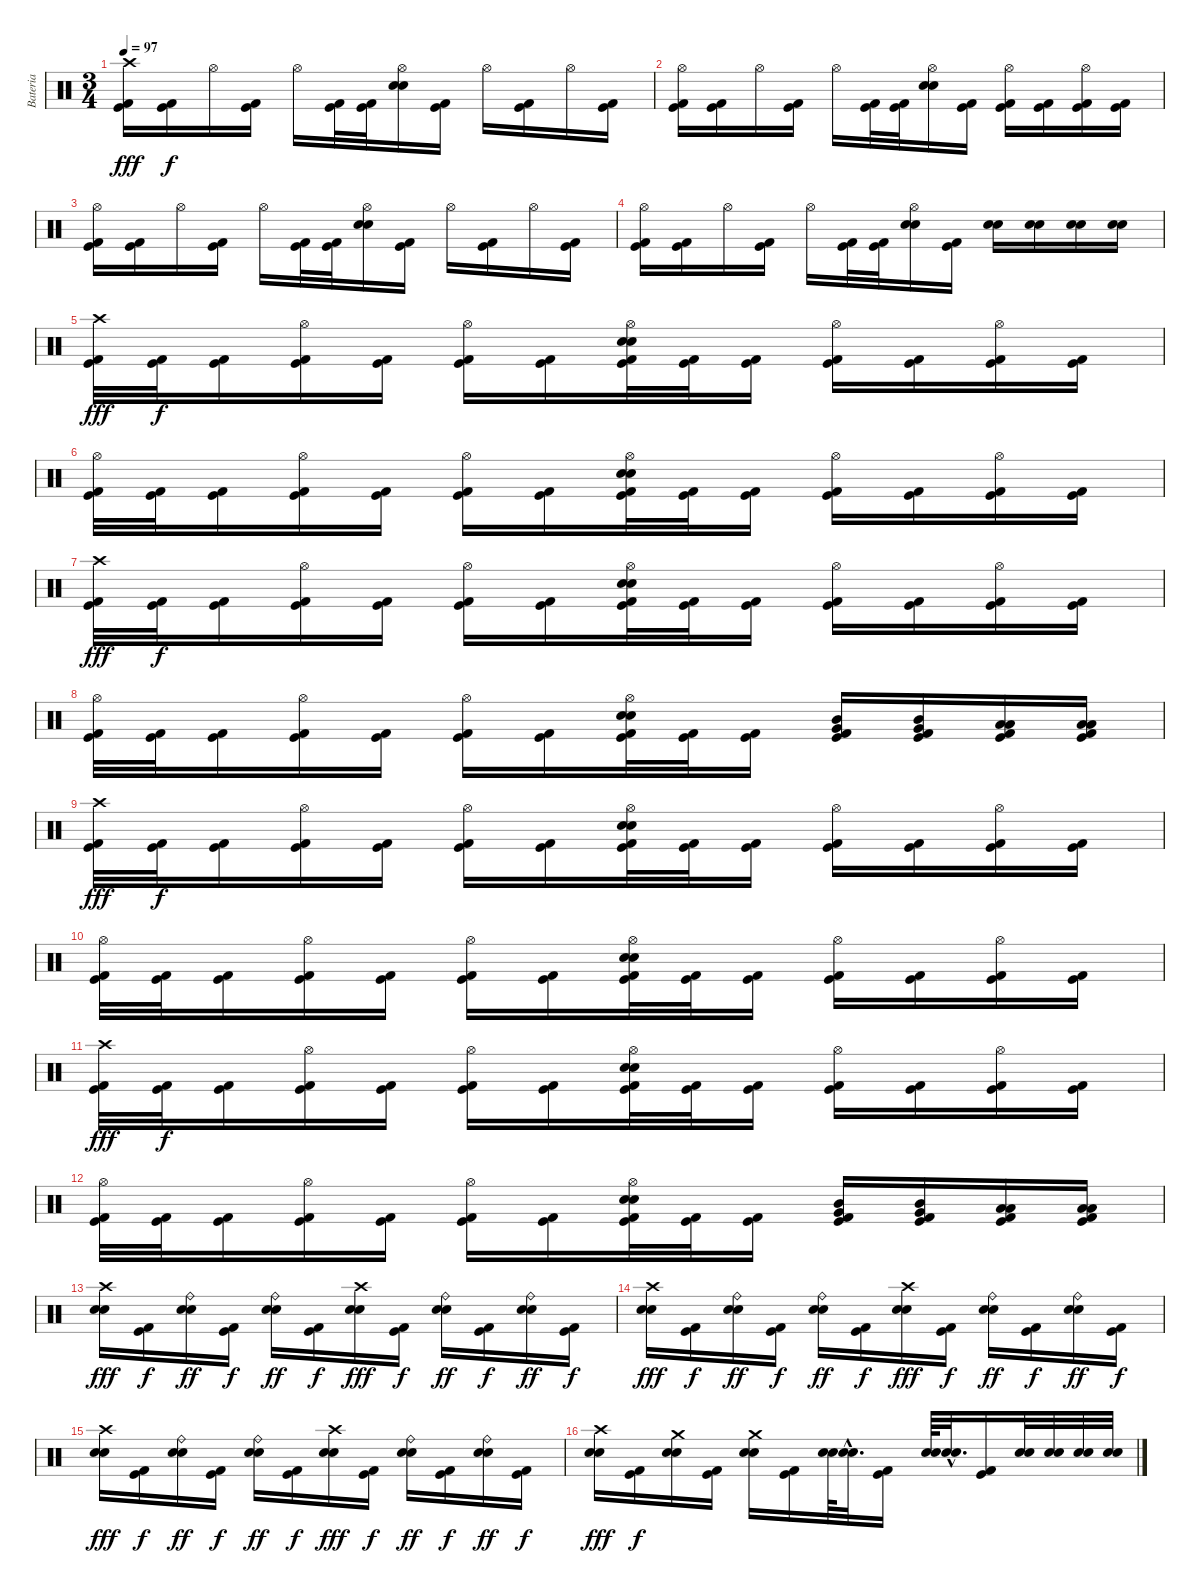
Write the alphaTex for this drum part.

\track ("Bateria" "Bateria") {instrument percussion}
\staff {score}
\articulation defaults
\ts (3 4)
\tempo 97
\clef neutral
\ks c
("Crash high (hit)" "Kick (hit) 2" "Kick (hit)").16{dy fff} ("Kick (hit) 2" "Kick (hit)").16{dy f} "Hi-Hat (open)".16 ("Kick (hit) 2" "Kick (hit)").16 "Hi-Hat (open)".16 ("Kick (hit) 2" "Kick (hit)").32 ("Kick (hit) 2" "Kick (hit)").32 ("Hi-Hat (open)" "Electric Snare (hit)" "Snare (hit) 2").16 ("Kick (hit) 2" "Kick (hit)").16 "Hi-Hat (open)".16 ("Kick (hit) 2" "Kick (hit)").16 "Hi-Hat (open)".16 ("Kick (hit) 2" "Kick (hit)").16 |
("Hi-Hat (open)" "Kick (hit) 2" "Kick (hit)").16 ("Kick (hit) 2" "Kick (hit)").16 "Hi-Hat (open)".16 ("Kick (hit) 2" "Kick (hit)").16 "Hi-Hat (open)".16 ("Kick (hit) 2" "Kick (hit)").32 ("Kick (hit) 2" "Kick (hit)").32 ("Hi-Hat (open)" "Electric Snare (hit)" "Snare (hit) 2").16 ("Kick (hit) 2" "Kick (hit)").16 ("Hi-Hat (open)" "Kick (hit) 2" "Kick (hit)").16 ("Kick (hit) 2" "Kick (hit)").16 ("Hi-Hat (open)" "Kick (hit) 2" "Kick (hit)").16 ("Kick (hit) 2" "Kick (hit)").16 |
("Hi-Hat (open)" "Kick (hit) 2" "Kick (hit)").16 ("Kick (hit) 2" "Kick (hit)").16 "Hi-Hat (open)".16 ("Kick (hit) 2" "Kick (hit)").16 "Hi-Hat (open)".16 ("Kick (hit) 2" "Kick (hit)").32 ("Kick (hit) 2" "Kick (hit)").32 ("Hi-Hat (open)" "Electric Snare (hit)" "Snare (hit) 2").16 ("Kick (hit) 2" "Kick (hit)").16 "Hi-Hat (open)".16 ("Kick (hit) 2" "Kick (hit)").16 "Hi-Hat (open)".16 ("Kick (hit) 2" "Kick (hit)").16 |
("Hi-Hat (open)" "Kick (hit) 2" "Kick (hit)").16 ("Kick (hit) 2" "Kick (hit)").16 "Hi-Hat (open)".16 ("Kick (hit) 2" "Kick (hit)").16 "Hi-Hat (open)".16 ("Kick (hit) 2" "Kick (hit)").32 ("Kick (hit) 2" "Kick (hit)").32 ("Hi-Hat (open)" "Electric Snare (hit)" "Snare (hit) 2").16 ("Kick (hit) 2" "Kick (hit)").16 ("Electric Snare (hit)" "Snare (hit) 2").16 ("Electric Snare (hit)" "Snare (hit) 2").16 ("Electric Snare (hit)" "Snare (hit) 2").16 ("Electric Snare (hit)" "Snare (hit) 2").16 |
("Crash high (hit)" "Kick (hit) 2" "Kick (hit)").32{dy fff} ("Kick (hit) 2" "Kick (hit)").32{dy f} ("Kick (hit) 2" "Kick (hit)").16 ("Hi-Hat (open)" "Kick (hit) 2" "Kick (hit)").16 ("Kick (hit) 2" "Kick (hit)").16 ("Hi-Hat (open)" "Kick (hit) 2" "Kick (hit)").16 ("Kick (hit) 2" "Kick (hit)").16 ("Hi-Hat (open)" "Electric Snare (hit)" "Snare (hit) 2" "Kick (hit) 2" "Kick (hit)").32 ("Kick (hit) 2" "Kick (hit)").32 ("Kick (hit) 2" "Kick (hit)").16 ("Hi-Hat (open)" "Kick (hit) 2" "Kick (hit)").16 ("Kick (hit) 2" "Kick (hit)").16 ("Hi-Hat (open)" "Kick (hit) 2" "Kick (hit)").16 ("Kick (hit) 2" "Kick (hit)").16 |
("Hi-Hat (open)" "Kick (hit) 2" "Kick (hit)").32 ("Kick (hit) 2" "Kick (hit)").32 ("Kick (hit) 2" "Kick (hit)").16 ("Hi-Hat (open)" "Kick (hit) 2" "Kick (hit)").16 ("Kick (hit) 2" "Kick (hit)").16 ("Hi-Hat (open)" "Kick (hit) 2" "Kick (hit)").16 ("Kick (hit) 2" "Kick (hit)").16 ("Hi-Hat (open)" "Electric Snare (hit)" "Snare (hit) 2" "Kick (hit) 2" "Kick (hit)").32 ("Kick (hit) 2" "Kick (hit)").32 ("Kick (hit) 2" "Kick (hit)").16 ("Hi-Hat (open)" "Kick (hit) 2" "Kick (hit)").16 ("Kick (hit) 2" "Kick (hit)").16 ("Hi-Hat (open)" "Kick (hit) 2" "Kick (hit)").16 ("Kick (hit) 2" "Kick (hit)").16 |
("Crash high (hit)" "Kick (hit) 2" "Kick (hit)").32{dy fff} ("Kick (hit) 2" "Kick (hit)").32{dy f} ("Kick (hit) 2" "Kick (hit)").16 ("Hi-Hat (open)" "Kick (hit) 2" "Kick (hit)").16 ("Kick (hit) 2" "Kick (hit)").16 ("Hi-Hat (open)" "Kick (hit) 2" "Kick (hit)").16 ("Kick (hit) 2" "Kick (hit)").16 ("Hi-Hat (open)" "Electric Snare (hit)" "Snare (hit) 2" "Kick (hit) 2" "Kick (hit)").32 ("Kick (hit) 2" "Kick (hit)").32 ("Kick (hit) 2" "Kick (hit)").16 ("Hi-Hat (open)" "Kick (hit) 2" "Kick (hit)").16 ("Kick (hit) 2" "Kick (hit)").16 ("Hi-Hat (open)" "Kick (hit) 2" "Kick (hit)").16 ("Kick (hit) 2" "Kick (hit)").16 |
("Hi-Hat (open)" "Kick (hit) 2" "Kick (hit)").32 ("Kick (hit) 2" "Kick (hit)").32 ("Kick (hit) 2" "Kick (hit)").16 ("Hi-Hat (open)" "Kick (hit) 2" "Kick (hit)").16 ("Kick (hit) 2" "Kick (hit)").16 ("Hi-Hat (open)" "Kick (hit) 2" "Kick (hit)").16 ("Kick (hit) 2" "Kick (hit)").16 ("Hi-Hat (open)" "Electric Snare (hit)" "Snare (hit) 2" "Kick (hit) 2" "Kick (hit)").32 ("Kick (hit) 2" "Kick (hit)").32 ("Kick (hit) 2" "Kick (hit)").16 ("Mid Tom (hit)" "Very Low Tom (hit)" "Kick (hit) 2" "Kick (hit)").16 ("Mid Tom (hit)" "Very Low Tom (hit)" "Kick (hit) 2" "Kick (hit)").16 ("Low Tom (hit)" "Low Floor Tom (hit)" "Kick (hit) 2" "Kick (hit)").16 ("Low Tom (hit)" "Low Floor Tom (hit)" "Kick (hit) 2" "Kick (hit)").16 |
("Crash high (hit)" "Kick (hit) 2" "Kick (hit)").32{dy fff} ("Kick (hit) 2" "Kick (hit)").32{dy f} ("Kick (hit) 2" "Kick (hit)").16 ("Hi-Hat (open)" "Kick (hit) 2" "Kick (hit)").16 ("Kick (hit) 2" "Kick (hit)").16 ("Hi-Hat (open)" "Kick (hit) 2" "Kick (hit)").16 ("Kick (hit) 2" "Kick (hit)").16 ("Hi-Hat (open)" "Electric Snare (hit)" "Snare (hit) 2" "Kick (hit) 2" "Kick (hit)").32 ("Kick (hit) 2" "Kick (hit)").32 ("Kick (hit) 2" "Kick (hit)").16 ("Hi-Hat (open)" "Kick (hit) 2" "Kick (hit)").16 ("Kick (hit) 2" "Kick (hit)").16 ("Hi-Hat (open)" "Kick (hit) 2" "Kick (hit)").16 ("Kick (hit) 2" "Kick (hit)").16 |
("Hi-Hat (open)" "Kick (hit) 2" "Kick (hit)").32 ("Kick (hit) 2" "Kick (hit)").32 ("Kick (hit) 2" "Kick (hit)").16 ("Hi-Hat (open)" "Kick (hit) 2" "Kick (hit)").16 ("Kick (hit) 2" "Kick (hit)").16 ("Hi-Hat (open)" "Kick (hit) 2" "Kick (hit)").16 ("Kick (hit) 2" "Kick (hit)").16 ("Hi-Hat (open)" "Electric Snare (hit)" "Snare (hit) 2" "Kick (hit) 2" "Kick (hit)").32 ("Kick (hit) 2" "Kick (hit)").32 ("Kick (hit) 2" "Kick (hit)").16 ("Hi-Hat (open)" "Kick (hit) 2" "Kick (hit)").16 ("Kick (hit) 2" "Kick (hit)").16 ("Hi-Hat (open)" "Kick (hit) 2" "Kick (hit)").16 ("Kick (hit) 2" "Kick (hit)").16 |
("Crash high (hit)" "Kick (hit) 2" "Kick (hit)").32{dy fff} ("Kick (hit) 2" "Kick (hit)").32{dy f} ("Kick (hit) 2" "Kick (hit)").16 ("Hi-Hat (open)" "Kick (hit) 2" "Kick (hit)").16 ("Kick (hit) 2" "Kick (hit)").16 ("Hi-Hat (open)" "Kick (hit) 2" "Kick (hit)").16 ("Kick (hit) 2" "Kick (hit)").16 ("Hi-Hat (open)" "Electric Snare (hit)" "Snare (hit) 2" "Kick (hit) 2" "Kick (hit)").32 ("Kick (hit) 2" "Kick (hit)").32 ("Kick (hit) 2" "Kick (hit)").16 ("Hi-Hat (open)" "Kick (hit) 2" "Kick (hit)").16 ("Kick (hit) 2" "Kick (hit)").16 ("Hi-Hat (open)" "Kick (hit) 2" "Kick (hit)").16 ("Kick (hit) 2" "Kick (hit)").16 |
("Hi-Hat (open)" "Kick (hit) 2" "Kick (hit)").32 ("Kick (hit) 2" "Kick (hit)").32 ("Kick (hit) 2" "Kick (hit)").16 ("Hi-Hat (open)" "Kick (hit) 2" "Kick (hit)").16 ("Kick (hit) 2" "Kick (hit)").16 ("Hi-Hat (open)" "Kick (hit) 2" "Kick (hit)").16 ("Kick (hit) 2" "Kick (hit)").16 ("Hi-Hat (open)" "Electric Snare (hit)" "Snare (hit) 2" "Kick (hit) 2" "Kick (hit)").32 ("Kick (hit) 2" "Kick (hit)").32 ("Kick (hit) 2" "Kick (hit)").16 ("Mid Tom (hit)" "Very Low Tom (hit)" "Kick (hit) 2" "Kick (hit)").16 ("Mid Tom (hit)" "Very Low Tom (hit)" "Kick (hit) 2" "Kick (hit)").16 ("Low Tom (hit)" "Low Floor Tom (hit)" "Kick (hit) 2" "Kick (hit)").16 ("Low Tom (hit)" "Low Floor Tom (hit)" "Kick (hit) 2" "Kick (hit)").16 |
("Crash high (hit)" "Electric Snare (hit)" "Snare (hit) 2").16{dy fff} ("Kick (hit) 2" "Kick (hit)").16{dy f} ("Ride (bell)" "Electric Snare (hit)" "Snare (hit) 2").16{dy ff} ("Kick (hit) 2" "Kick (hit)").16{dy f} ("Ride (bell)" "Electric Snare (hit)" "Snare (hit) 2").16{dy ff} ("Kick (hit) 2" "Kick (hit)").16{dy f} ("Crash high (hit)" "Electric Snare (hit)" "Snare (hit) 2").16{dy fff} ("Kick (hit) 2" "Kick (hit)").16{dy f} ("Ride (bell)" "Electric Snare (hit)" "Snare (hit) 2").16{dy ff} ("Kick (hit) 2" "Kick (hit)").16{dy f} ("Ride (bell)" "Electric Snare (hit)" "Snare (hit) 2").16{dy ff} ("Kick (hit) 2" "Kick (hit)").16{dy f} |
("Crash high (hit)" "Electric Snare (hit)" "Snare (hit) 2").16{dy fff} ("Kick (hit) 2" "Kick (hit)").16{dy f} ("Ride (bell)" "Electric Snare (hit)" "Snare (hit) 2").16{dy ff} ("Kick (hit) 2" "Kick (hit)").16{dy f} ("Ride (bell)" "Electric Snare (hit)" "Snare (hit) 2").16{dy ff} ("Kick (hit) 2" "Kick (hit)").16{dy f} ("Crash high (hit)" "Electric Snare (hit)" "Snare (hit) 2").16{dy fff} ("Kick (hit) 2" "Kick (hit)").16{dy f} ("Ride (bell)" "Electric Snare (hit)" "Snare (hit) 2").16{dy ff} ("Kick (hit) 2" "Kick (hit)").16{dy f} ("Ride (bell)" "Electric Snare (hit)" "Snare (hit) 2").16{dy ff} ("Kick (hit) 2" "Kick (hit)").16{dy f} |
("Crash high (hit)" "Electric Snare (hit)" "Snare (hit) 2").16{dy fff} ("Kick (hit) 2" "Kick (hit)").16{dy f} ("Ride (bell)" "Electric Snare (hit)" "Snare (hit) 2").16{dy ff} ("Kick (hit) 2" "Kick (hit)").16{dy f} ("Ride (bell)" "Electric Snare (hit)" "Snare (hit) 2").16{dy ff} ("Kick (hit) 2" "Kick (hit)").16{dy f} ("Crash high (hit)" "Electric Snare (hit)" "Snare (hit) 2").16{dy fff} ("Kick (hit) 2" "Kick (hit)").16{dy f} ("Ride (bell)" "Electric Snare (hit)" "Snare (hit) 2").16{dy ff} ("Kick (hit) 2" "Kick (hit)").16{dy f} ("Ride (bell)" "Electric Snare (hit)" "Snare (hit) 2").16{dy ff} ("Kick (hit) 2" "Kick (hit)").16{dy f} |
("Crash high (hit)" "Electric Snare (hit)" "Snare (hit) 2").16{dy fff} ("Kick (hit) 2" "Kick (hit)").16{dy f} ("Crash medium (hit)" "Electric Snare (hit)" "Snare (hit) 2").16 ("Kick (hit) 2" "Kick (hit)").16 ("Crash medium (hit)" "Electric Snare (hit)" "Snare (hit) 2").16 ("Kick (hit) 2" "Kick (hit)").16 ("Electric Snare (hit)" "Snare (hit) 2").64 ("Electric Snare (hit)"{hac} "Snare (hit) 2"{hac}).32{d} ("Kick (hit) 2" "Kick (hit)").16 ("Electric Snare (hit)" "Snare (hit) 2").64 ("Electric Snare (hit)"{hac} "Snare (hit) 2"{hac}).32{d} ("Kick (hit) 2" "Kick (hit)").16 ("Electric Snare (hit)" "Snare (hit) 2").32 ("Electric Snare (hit)" "Snare (hit) 2").32 ("Electric Snare (hit)" "Snare (hit) 2").32 ("Electric Snare (hit)" "Snare (hit) 2").32
